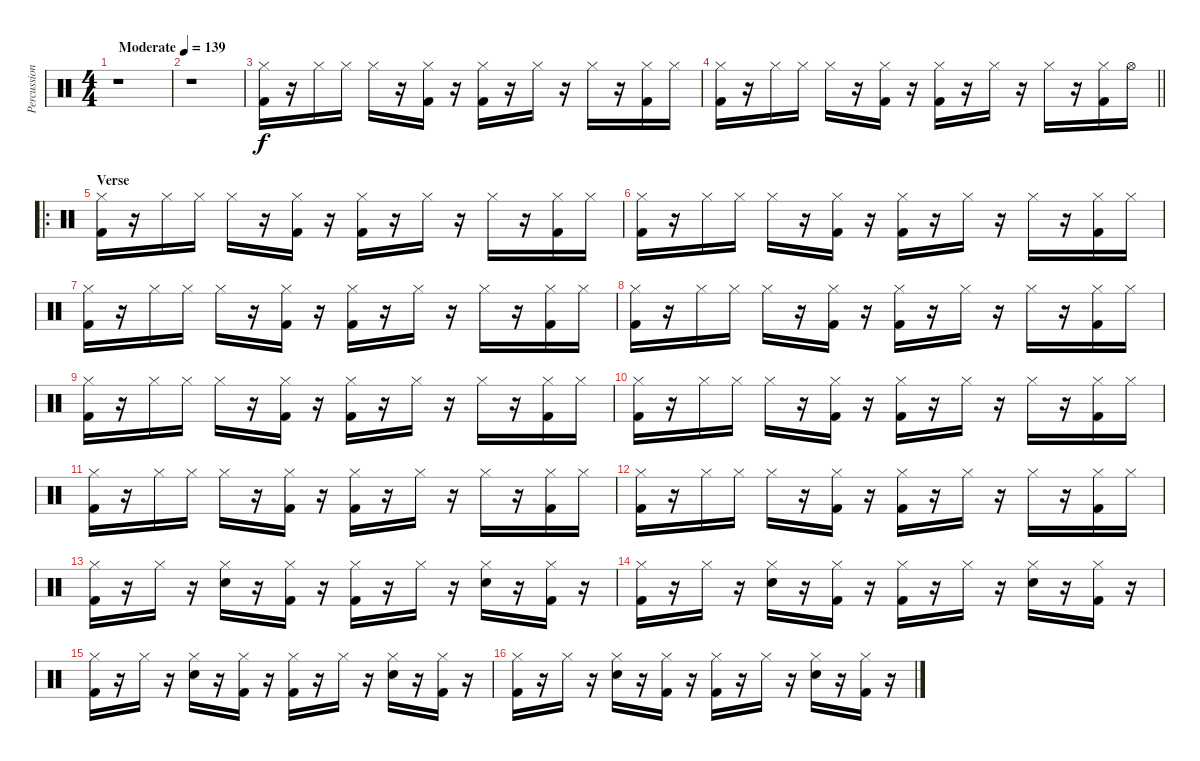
\track ("Percussion" "Percussion") {instrument percussion}
\staff {score}
\articulation defaults
\ts (4 4)
\tempo (139 "Moderate")
\clef neutral
\ks c
r.1{dy f} |
r.1 |
("Hi-Hat (closed)" "Kick (hit) 2").16 r.16 "Hi-Hat (closed)".16 "Hi-Hat (closed)".16 "Hi-Hat (closed)".16 r.16 ("Hi-Hat (closed)" "Kick (hit) 2").16 r.16 ("Hi-Hat (closed)" "Kick (hit) 2").16 r.16 "Hi-Hat (closed)".16 r.16 "Hi-Hat (closed)".16 r.16 ("Hi-Hat (closed)" "Kick (hit) 2").16 "Hi-Hat (closed)".16 |
\barLineRight lightlight
("Hi-Hat (closed)" "Kick (hit) 2").16 r.16 "Hi-Hat (closed)".16 "Hi-Hat (closed)".16 "Hi-Hat (closed)".16 r.16 ("Hi-Hat (closed)" "Kick (hit) 2").16 r.16 ("Hi-Hat (closed)" "Kick (hit) 2").16 r.16 "Hi-Hat (closed)".16 r.16 "Hi-Hat (closed)".16 r.16 ("Hi-Hat (closed)" "Kick (hit) 2").16 "Hi-Hat (open)".16 |
\ro
\section ("" "Verse")
("Hi-Hat (closed)" "Kick (hit) 2").16 r.16 "Hi-Hat (closed)".16 "Hi-Hat (closed)".16 "Hi-Hat (closed)".16 r.16 ("Hi-Hat (closed)" "Kick (hit) 2").16 r.16 ("Hi-Hat (closed)" "Kick (hit) 2").16 r.16 "Hi-Hat (closed)".16 r.16 "Hi-Hat (closed)".16 r.16 ("Hi-Hat (closed)" "Kick (hit) 2").16 "Hi-Hat (closed)".16 |
("Hi-Hat (closed)" "Kick (hit) 2").16 r.16 "Hi-Hat (closed)".16 "Hi-Hat (closed)".16 "Hi-Hat (closed)".16 r.16 ("Hi-Hat (closed)" "Kick (hit) 2").16 r.16 ("Hi-Hat (closed)" "Kick (hit) 2").16 r.16 "Hi-Hat (closed)".16 r.16 "Hi-Hat (closed)".16 r.16 ("Hi-Hat (closed)" "Kick (hit) 2").16 "Hi-Hat (closed)".16 |
("Hi-Hat (closed)" "Kick (hit) 2").16 r.16 "Hi-Hat (closed)".16 "Hi-Hat (closed)".16 "Hi-Hat (closed)".16 r.16 ("Hi-Hat (closed)" "Kick (hit) 2").16 r.16 ("Hi-Hat (closed)" "Kick (hit) 2").16 r.16 "Hi-Hat (closed)".16 r.16 "Hi-Hat (closed)".16 r.16 ("Hi-Hat (closed)" "Kick (hit) 2").16 "Hi-Hat (closed)".16 |
("Hi-Hat (closed)" "Kick (hit) 2").16 r.16 "Hi-Hat (closed)".16 "Hi-Hat (closed)".16 "Hi-Hat (closed)".16 r.16 ("Hi-Hat (closed)" "Kick (hit) 2").16 r.16 ("Hi-Hat (closed)" "Kick (hit) 2").16 r.16 "Hi-Hat (closed)".16 r.16 "Hi-Hat (closed)".16 r.16 ("Hi-Hat (closed)" "Kick (hit) 2").16 "Hi-Hat (closed)".16 |
("Hi-Hat (closed)" "Kick (hit) 2").16 r.16 "Hi-Hat (closed)".16 "Hi-Hat (closed)".16 "Hi-Hat (closed)".16 r.16 ("Hi-Hat (closed)" "Kick (hit) 2").16 r.16 ("Hi-Hat (closed)" "Kick (hit) 2").16 r.16 "Hi-Hat (closed)".16 r.16 "Hi-Hat (closed)".16 r.16 ("Hi-Hat (closed)" "Kick (hit) 2").16 "Hi-Hat (closed)".16 |
("Hi-Hat (closed)" "Kick (hit) 2").16 r.16 "Hi-Hat (closed)".16 "Hi-Hat (closed)".16 "Hi-Hat (closed)".16 r.16 ("Hi-Hat (closed)" "Kick (hit) 2").16 r.16 ("Hi-Hat (closed)" "Kick (hit) 2").16 r.16 "Hi-Hat (closed)".16 r.16 "Hi-Hat (closed)".16 r.16 ("Hi-Hat (closed)" "Kick (hit) 2").16 "Hi-Hat (closed)".16 |
("Hi-Hat (closed)" "Kick (hit) 2").16 r.16 "Hi-Hat (closed)".16 "Hi-Hat (closed)".16 "Hi-Hat (closed)".16 r.16 ("Hi-Hat (closed)" "Kick (hit) 2").16 r.16 ("Hi-Hat (closed)" "Kick (hit) 2").16 r.16 "Hi-Hat (closed)".16 r.16 "Hi-Hat (closed)".16 r.16 ("Hi-Hat (closed)" "Kick (hit) 2").16 "Hi-Hat (closed)".16 |
("Hi-Hat (closed)" "Kick (hit) 2").16 r.16 "Hi-Hat (closed)".16 "Hi-Hat (closed)".16 "Hi-Hat (closed)".16 r.16 ("Hi-Hat (closed)" "Kick (hit) 2").16 r.16 ("Hi-Hat (closed)" "Kick (hit) 2").16 r.16 "Hi-Hat (closed)".16 r.16 "Hi-Hat (closed)".16 r.16 ("Hi-Hat (closed)" "Kick (hit) 2").16 "Hi-Hat (closed)".16 |
("Hi-Hat (closed)" "Kick (hit) 2").16 r.16 "Hi-Hat (closed)".16 r.16 ("Hi-Hat (closed)" "Snare (hit) 2").16 r.16 ("Hi-Hat (closed)" "Kick (hit) 2").16 r.16 ("Hi-Hat (closed)" "Kick (hit) 2").16 r.16 "Hi-Hat (closed)".16 r.16 ("Hi-Hat (closed)" "Snare (hit) 2").16 r.16 ("Hi-Hat (closed)" "Kick (hit) 2").16 r.16 |
("Hi-Hat (closed)" "Kick (hit) 2").16 r.16 "Hi-Hat (closed)".16 r.16 ("Hi-Hat (closed)" "Snare (hit) 2").16 r.16 ("Hi-Hat (closed)" "Kick (hit) 2").16 r.16 ("Hi-Hat (closed)" "Kick (hit) 2").16 r.16 "Hi-Hat (closed)".16 r.16 ("Hi-Hat (closed)" "Snare (hit) 2").16 r.16 ("Hi-Hat (closed)" "Kick (hit) 2").16 r.16 |
("Hi-Hat (closed)" "Kick (hit) 2").16 r.16 "Hi-Hat (closed)".16 r.16 ("Hi-Hat (closed)" "Snare (hit) 2").16 r.16 ("Hi-Hat (closed)" "Kick (hit) 2").16 r.16 ("Hi-Hat (closed)" "Kick (hit) 2").16 r.16 "Hi-Hat (closed)".16 r.16 ("Hi-Hat (closed)" "Snare (hit) 2").16 r.16 ("Hi-Hat (closed)" "Kick (hit) 2").16 r.16 |
("Hi-Hat (closed)" "Kick (hit) 2").16 r.16 "Hi-Hat (closed)".16 r.16 ("Hi-Hat (closed)" "Snare (hit) 2").16 r.16 ("Hi-Hat (closed)" "Kick (hit) 2").16 r.16 ("Hi-Hat (closed)" "Kick (hit) 2").16 r.16 "Hi-Hat (closed)".16 r.16 ("Hi-Hat (closed)" "Snare (hit) 2").16 r.16 ("Hi-Hat (closed)" "Kick (hit) 2").16 r.16
